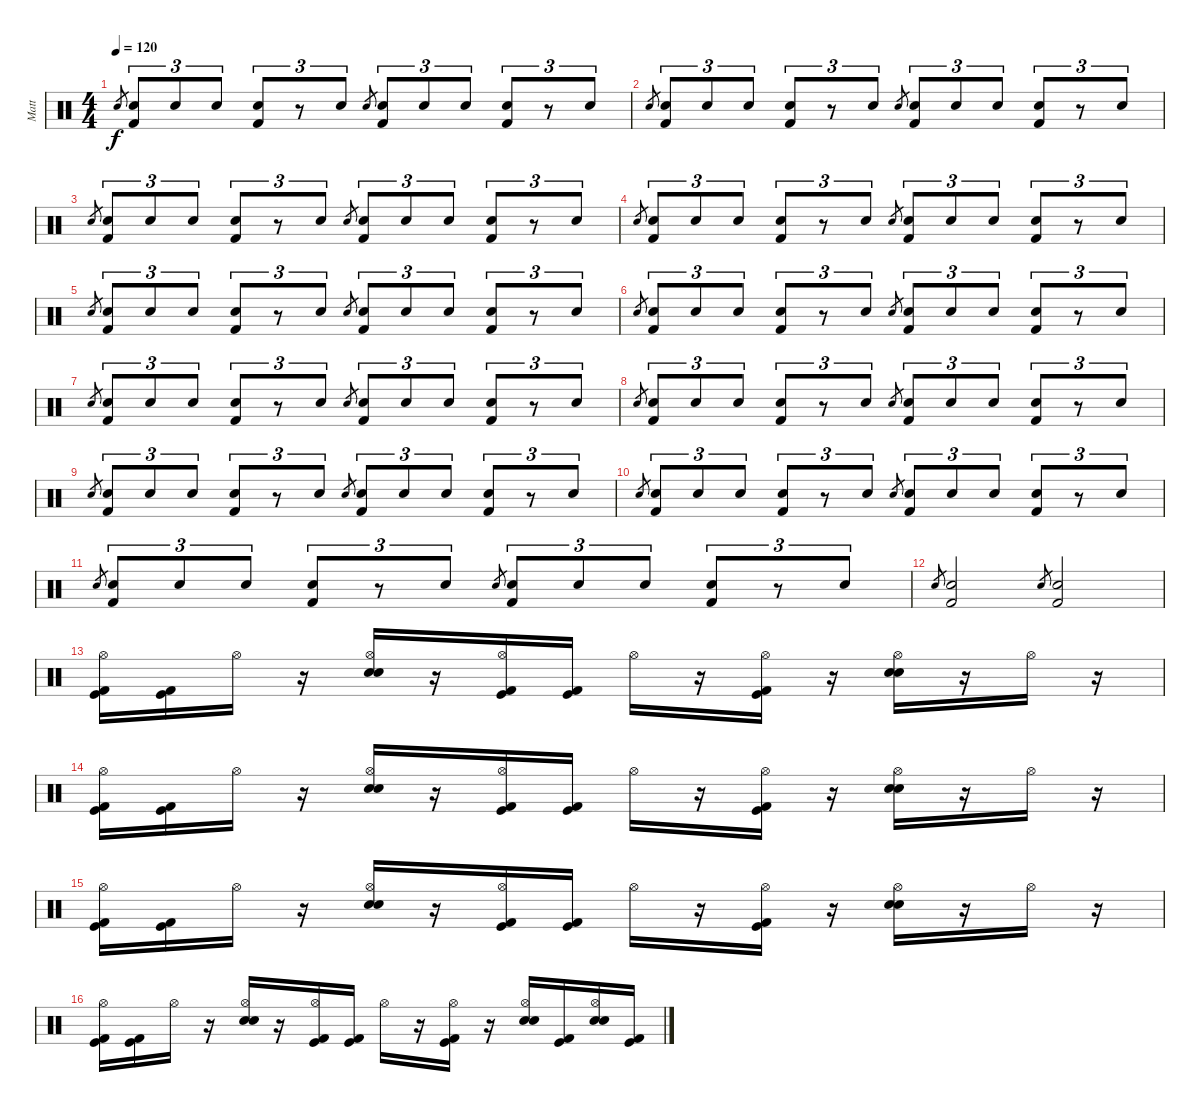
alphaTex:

\track ("Matt" "Matt") {instrument percussion}
\staff {score}
\articulation defaults
\ts (4 4)
\tempo 120
\clef neutral
\ks c "Electric Snare (hit)".8{gr dy f}
("Electric Snare (hit)" "Kick (hit) 2").8{tu (3 2)} "Electric Snare (hit)".8{tu (3 2)} "Electric Snare (hit)".8{tu (3 2)} ("Electric Snare (hit)" "Kick (hit) 2").8{tu (3 2)} r.8{tu (3 2)} "Electric Snare (hit)".8{tu (3 2)} "Electric Snare (hit)".8{gr} ("Electric Snare (hit)" "Kick (hit) 2").8{tu (3 2)} "Electric Snare (hit)".8{tu (3 2)} "Electric Snare (hit)".8{tu (3 2)} ("Electric Snare (hit)" "Kick (hit) 2").8{tu (3 2)} r.8{tu (3 2)} "Electric Snare (hit)".8{tu (3 2)} |
"Electric Snare (hit)".8{gr} ("Electric Snare (hit)" "Kick (hit) 2").8{tu (3 2)} "Electric Snare (hit)".8{tu (3 2)} "Electric Snare (hit)".8{tu (3 2)} ("Electric Snare (hit)" "Kick (hit) 2").8{tu (3 2)} r.8{tu (3 2)} "Electric Snare (hit)".8{tu (3 2)} "Electric Snare (hit)".8{gr} ("Electric Snare (hit)" "Kick (hit) 2").8{tu (3 2)} "Electric Snare (hit)".8{tu (3 2)} "Electric Snare (hit)".8{tu (3 2)} ("Electric Snare (hit)" "Kick (hit) 2").8{tu (3 2)} r.8{tu (3 2)} "Electric Snare (hit)".8{tu (3 2)} |
"Electric Snare (hit)".8{gr} ("Electric Snare (hit)" "Kick (hit) 2").8{tu (3 2)} "Electric Snare (hit)".8{tu (3 2)} "Electric Snare (hit)".8{tu (3 2)} ("Electric Snare (hit)" "Kick (hit) 2").8{tu (3 2)} r.8{tu (3 2)} "Electric Snare (hit)".8{tu (3 2)} "Electric Snare (hit)".8{gr} ("Electric Snare (hit)" "Kick (hit) 2").8{tu (3 2)} "Electric Snare (hit)".8{tu (3 2)} "Electric Snare (hit)".8{tu (3 2)} ("Electric Snare (hit)" "Kick (hit) 2").8{tu (3 2)} r.8{tu (3 2)} "Electric Snare (hit)".8{tu (3 2)} |
"Electric Snare (hit)".8{gr} ("Electric Snare (hit)" "Kick (hit) 2").8{tu (3 2)} "Electric Snare (hit)".8{tu (3 2)} "Electric Snare (hit)".8{tu (3 2)} ("Electric Snare (hit)" "Kick (hit) 2").8{tu (3 2)} r.8{tu (3 2)} "Electric Snare (hit)".8{tu (3 2)} "Electric Snare (hit)".8{gr} ("Electric Snare (hit)" "Kick (hit) 2").8{tu (3 2)} "Electric Snare (hit)".8{tu (3 2)} "Electric Snare (hit)".8{tu (3 2)} ("Electric Snare (hit)" "Kick (hit) 2").8{tu (3 2)} r.8{tu (3 2)} "Electric Snare (hit)".8{tu (3 2)} |
"Electric Snare (hit)".8{gr} ("Electric Snare (hit)" "Kick (hit) 2").8{tu (3 2)} "Electric Snare (hit)".8{tu (3 2)} "Electric Snare (hit)".8{tu (3 2)} ("Electric Snare (hit)" "Kick (hit) 2").8{tu (3 2)} r.8{tu (3 2)} "Electric Snare (hit)".8{tu (3 2)} "Electric Snare (hit)".8{gr} ("Electric Snare (hit)" "Kick (hit) 2").8{tu (3 2)} "Electric Snare (hit)".8{tu (3 2)} "Electric Snare (hit)".8{tu (3 2)} ("Electric Snare (hit)" "Kick (hit) 2").8{tu (3 2)} r.8{tu (3 2)} "Electric Snare (hit)".8{tu (3 2)} |
"Electric Snare (hit)".8{gr} ("Electric Snare (hit)" "Kick (hit) 2").8{tu (3 2)} "Electric Snare (hit)".8{tu (3 2)} "Electric Snare (hit)".8{tu (3 2)} ("Electric Snare (hit)" "Kick (hit) 2").8{tu (3 2)} r.8{tu (3 2)} "Electric Snare (hit)".8{tu (3 2)} "Electric Snare (hit)".8{gr} ("Electric Snare (hit)" "Kick (hit) 2").8{tu (3 2)} "Electric Snare (hit)".8{tu (3 2)} "Electric Snare (hit)".8{tu (3 2)} ("Electric Snare (hit)" "Kick (hit) 2").8{tu (3 2)} r.8{tu (3 2)} "Electric Snare (hit)".8{tu (3 2)} |
"Electric Snare (hit)".8{gr} ("Electric Snare (hit)" "Kick (hit) 2").8{tu (3 2)} "Electric Snare (hit)".8{tu (3 2)} "Electric Snare (hit)".8{tu (3 2)} ("Electric Snare (hit)" "Kick (hit) 2").8{tu (3 2)} r.8{tu (3 2)} "Electric Snare (hit)".8{tu (3 2)} "Electric Snare (hit)".8{gr} ("Electric Snare (hit)" "Kick (hit) 2").8{tu (3 2)} "Electric Snare (hit)".8{tu (3 2)} "Electric Snare (hit)".8{tu (3 2)} ("Electric Snare (hit)" "Kick (hit) 2").8{tu (3 2)} r.8{tu (3 2)} "Electric Snare (hit)".8{tu (3 2)} |
"Electric Snare (hit)".8{gr} ("Electric Snare (hit)" "Kick (hit) 2").8{tu (3 2)} "Electric Snare (hit)".8{tu (3 2)} "Electric Snare (hit)".8{tu (3 2)} ("Electric Snare (hit)" "Kick (hit) 2").8{tu (3 2)} r.8{tu (3 2)} "Electric Snare (hit)".8{tu (3 2)} "Electric Snare (hit)".8{gr} ("Electric Snare (hit)" "Kick (hit) 2").8{tu (3 2)} "Electric Snare (hit)".8{tu (3 2)} "Electric Snare (hit)".8{tu (3 2)} ("Electric Snare (hit)" "Kick (hit) 2").8{tu (3 2)} r.8{tu (3 2)} "Electric Snare (hit)".8{tu (3 2)} |
"Electric Snare (hit)".8{gr} ("Electric Snare (hit)" "Kick (hit) 2").8{tu (3 2)} "Electric Snare (hit)".8{tu (3 2)} "Electric Snare (hit)".8{tu (3 2)} ("Electric Snare (hit)" "Kick (hit) 2").8{tu (3 2)} r.8{tu (3 2)} "Electric Snare (hit)".8{tu (3 2)} "Electric Snare (hit)".8{gr} ("Electric Snare (hit)" "Kick (hit) 2").8{tu (3 2)} "Electric Snare (hit)".8{tu (3 2)} "Electric Snare (hit)".8{tu (3 2)} ("Electric Snare (hit)" "Kick (hit) 2").8{tu (3 2)} r.8{tu (3 2)} "Electric Snare (hit)".8{tu (3 2)} |
"Electric Snare (hit)".8{gr} ("Electric Snare (hit)" "Kick (hit) 2").8{tu (3 2)} "Electric Snare (hit)".8{tu (3 2)} "Electric Snare (hit)".8{tu (3 2)} ("Electric Snare (hit)" "Kick (hit) 2").8{tu (3 2)} r.8{tu (3 2)} "Electric Snare (hit)".8{tu (3 2)} "Electric Snare (hit)".8{gr} ("Electric Snare (hit)" "Kick (hit) 2").8{tu (3 2)} "Electric Snare (hit)".8{tu (3 2)} "Electric Snare (hit)".8{tu (3 2)} ("Electric Snare (hit)" "Kick (hit) 2").8{tu (3 2)} r.8{tu (3 2)} "Electric Snare (hit)".8{tu (3 2)} |
"Electric Snare (hit)".8{gr} ("Electric Snare (hit)" "Kick (hit) 2").8{tu (3 2)} "Electric Snare (hit)".8{tu (3 2)} "Electric Snare (hit)".8{tu (3 2)} ("Electric Snare (hit)" "Kick (hit) 2").8{tu (3 2)} r.8{tu (3 2)} "Electric Snare (hit)".8{tu (3 2)} "Electric Snare (hit)".8{gr} ("Electric Snare (hit)" "Kick (hit) 2").8{tu (3 2)} "Electric Snare (hit)".8{tu (3 2)} "Electric Snare (hit)".8{tu (3 2)} ("Electric Snare (hit)" "Kick (hit) 2").8{tu (3 2)} r.8{tu (3 2)} "Electric Snare (hit)".8{tu (3 2)} |
"Electric Snare (hit)".8{gr} ("Electric Snare (hit)" "Kick (hit) 2").2 "Electric Snare (hit)".8{gr} ("Electric Snare (hit)" "Kick (hit) 2").2 |
("Hi-Hat (open)" "Kick (hit)" "Kick (hit) 2").16 ("Kick (hit)" "Kick (hit) 2").16 "Hi-Hat (open)".16 r.16 ("Hi-Hat (open)" "Electric Snare (hit)" "Snare (hit) 2").16 r.16 ("Hi-Hat (open)" "Kick (hit)" "Kick (hit) 2").16 ("Kick (hit)" "Kick (hit) 2").16 "Hi-Hat (open)".16 r.16 ("Hi-Hat (open)" "Kick (hit)" "Kick (hit) 2").16 r.16 ("Hi-Hat (open)" "Electric Snare (hit)" "Snare (hit) 2").16 r.16 "Hi-Hat (open)".16 r.16 |
("Hi-Hat (open)" "Kick (hit)" "Kick (hit) 2").16 ("Kick (hit)" "Kick (hit) 2").16 "Hi-Hat (open)".16 r.16 ("Hi-Hat (open)" "Electric Snare (hit)" "Snare (hit) 2").16 r.16 ("Hi-Hat (open)" "Kick (hit)" "Kick (hit) 2").16 ("Kick (hit)" "Kick (hit) 2").16 "Hi-Hat (open)".16 r.16 ("Hi-Hat (open)" "Kick (hit)" "Kick (hit) 2").16 r.16 ("Hi-Hat (open)" "Electric Snare (hit)" "Snare (hit) 2").16 r.16 "Hi-Hat (open)".16 r.16 |
("Hi-Hat (open)" "Kick (hit)" "Kick (hit) 2").16 ("Kick (hit)" "Kick (hit) 2").16 "Hi-Hat (open)".16 r.16 ("Hi-Hat (open)" "Electric Snare (hit)" "Snare (hit) 2").16 r.16 ("Hi-Hat (open)" "Kick (hit)" "Kick (hit) 2").16 ("Kick (hit)" "Kick (hit) 2").16 "Hi-Hat (open)".16 r.16 ("Hi-Hat (open)" "Kick (hit)" "Kick (hit) 2").16 r.16 ("Hi-Hat (open)" "Electric Snare (hit)" "Snare (hit) 2").16 r.16 "Hi-Hat (open)".16 r.16 |
("Hi-Hat (open)" "Kick (hit)" "Kick (hit) 2").16 ("Kick (hit)" "Kick (hit) 2").16 "Hi-Hat (open)".16 r.16 ("Hi-Hat (open)" "Electric Snare (hit)" "Snare (hit) 2").16 r.16 ("Hi-Hat (open)" "Kick (hit)" "Kick (hit) 2").16 ("Kick (hit)" "Kick (hit) 2").16 "Hi-Hat (open)".16 r.16 ("Hi-Hat (open)" "Kick (hit)" "Kick (hit) 2").16 r.16 ("Hi-Hat (open)" "Electric Snare (hit)" "Snare (hit) 2").16 ("Kick (hit)" "Kick (hit) 2").16 ("Hi-Hat (open)" "Electric Snare (hit)" "Snare (hit) 2").16 ("Kick (hit)" "Kick (hit) 2").16
